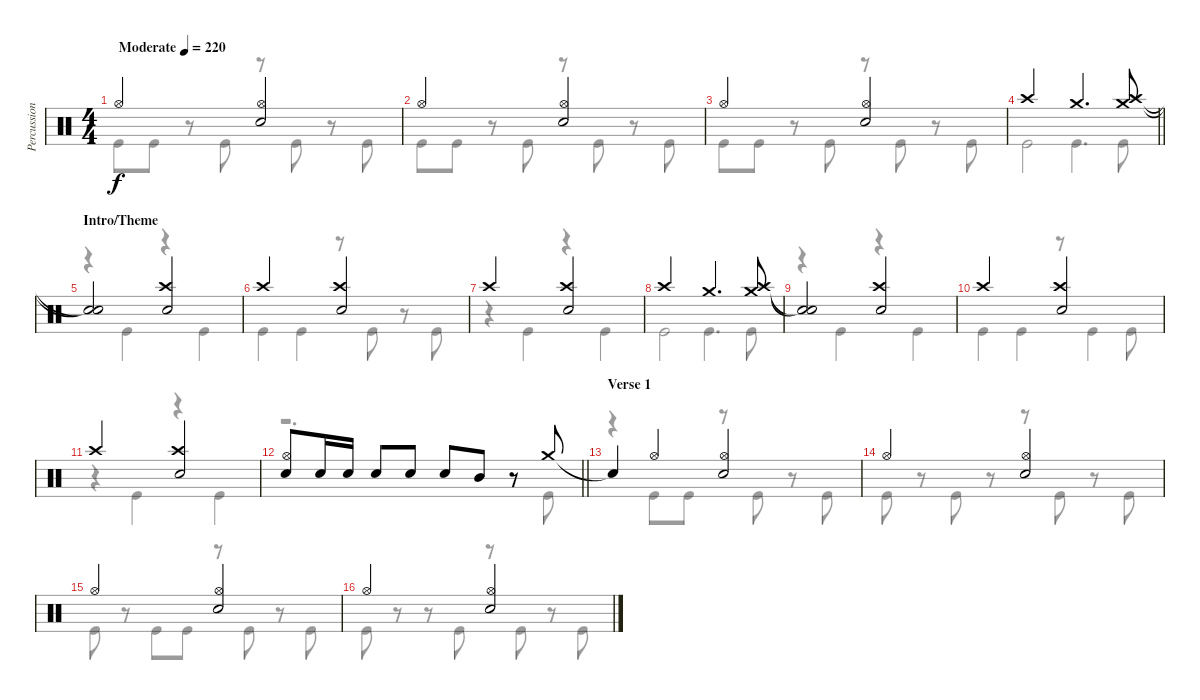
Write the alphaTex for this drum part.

\track ("Percussion" "Percussion") {instrument percussion}
\staff {score}
\articulation defaults
\voice
\ts (4 4)
\tempo (220 "Moderate")
\clef neutral
\ks c "Hi-Hat (open)".2{dy f}
("Hi-Hat (open)" "Electric Snare (hit)").2 |
"Hi-Hat (open)".2 ("Hi-Hat (open)" "Electric Snare (hit)").2 |
"Hi-Hat (open)".2 ("Hi-Hat (open)" "Electric Snare (hit)").2 |
\barLineRight lightlight "Crash high (hit)".2 "Crash medium (hit)".4{d}
("Crash medium (hit)" "Crash high (hit)").8 |
\section ("" "Intro/Theme")
("Snare (hit)"{t} "Snare (hit)"{t}).2 ("Crash high (hit)" "Electric Snare (hit)").2 |
"Crash high (hit)".2 ("Crash high (hit)" "Electric Snare (hit)").2 |
"Crash high (hit)".2 ("Crash high (hit)" "Electric Snare (hit)").2 |
"Crash high (hit)".2 "Crash medium (hit)".4{d} ("Crash medium (hit)" "Crash high (hit)").8 |
("Snare (hit)"{t} "Snare (hit)"{t}).2 ("Crash high (hit)" "Electric Snare (hit)").2 |
"Crash high (hit)".2 ("Crash high (hit)" "Electric Snare (hit)").2 |
"Crash high (hit)".2 ("Crash high (hit)" "Electric Snare (hit)").2 |
\barLineRight lightlight
("Hi-Hat (open)" "Electric Snare (hit)").8 "Electric Snare (hit)".16 "Electric Snare (hit)".16 "Electric Snare (hit)".8 "Electric Snare (hit)".8 "Electric Snare (hit)".8 "Mid Tom (hit)".8 r.8 "Crash medium (hit)".8 |
\section ("" "Verse 1")
"Snare (hit)"{t}.4 "Hi-Hat (open)".4 ("Hi-Hat (open)" "Electric Snare (hit)").2 |
"Hi-Hat (open)".2 ("Hi-Hat (open)" "Electric Snare (hit)").2 |
"Hi-Hat (open)".2 ("Hi-Hat (open)" "Electric Snare (hit)").2 |
"Hi-Hat (open)".2 ("Hi-Hat (open)" "Electric Snare (hit)").2
\voice
\clef neutral
\ottava regular
\simile none
\ks c "Kick (hit)".8{dy f} "Kick (hit)".8
r.8 "Kick (hit)".8 r.8 "Kick (hit)".8 r.8 "Kick (hit)".8 |
"Kick (hit)".8 "Kick (hit)".8 r.8 "Kick (hit)".8 r.8 "Kick (hit)".8 r.8 "Kick (hit)".8 |
"Kick (hit)".8 "Kick (hit)".8 r.8 "Kick (hit)".8 r.8 "Kick (hit)".8 r.8 "Kick (hit)".8 |
\barLineRight lightlight "Kick (hit)".2 "Kick (hit)".4{d} "Kick (hit)".8
|
r.4 "Kick (hit)".4 r.4 "Kick (hit)".4 |
"Kick (hit)".4 "Kick (hit)".4 r.8 "Kick (hit)".8 r.8 "Kick (hit)".8 |
r.4 "Kick (hit)".4 r.4 "Kick (hit)".4 |
"Kick (hit)".2 "Kick (hit)".4{d} "Kick (hit)".8 |
r.4 "Kick (hit)".4 r.4 "Kick (hit)".4 |
"Kick (hit)".4 "Kick (hit)".4 r.8 "Kick (hit)".4 "Kick (hit)".8 |
r.4 "Kick (hit)".4 r.4 "Kick (hit)".4 |
\barLineRight lightlight
r.2{d} r.8 "Kick (hit)".8 |
r.4 "Kick (hit)".8 "Kick (hit)".8 r.8 "Kick (hit)".8 r.8 "Kick (hit)".8 |
"Kick (hit)".8 r.8 "Kick (hit)".8 r.8 r.8 "Kick (hit)".8 r.8 "Kick (hit)".8 |
"Kick (hit)".8 r.8 "Kick (hit)".8 "Kick (hit)".8 r.8 "Kick (hit)".8 r.8 "Kick (hit)".8 |
"Kick (hit)".8 r.8 r.8 "Kick (hit)".8 r.8 "Kick (hit)".8 r.8 "Kick (hit)".8
